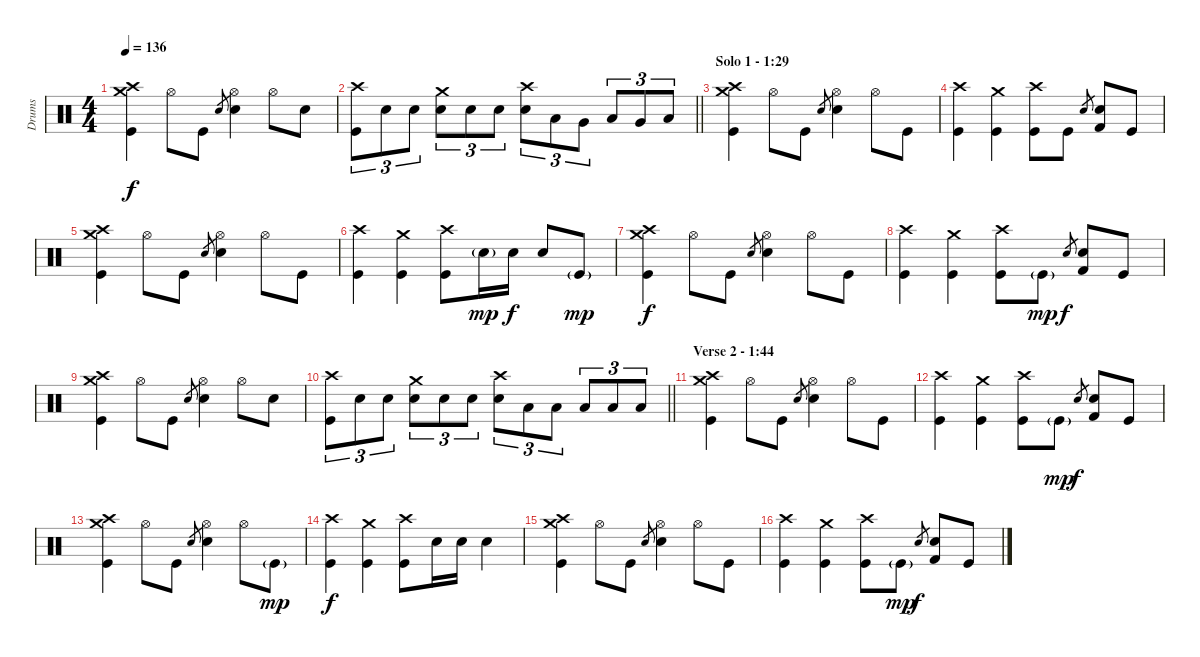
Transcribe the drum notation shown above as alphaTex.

\track ("Drums" "Drums") {instrument percussion}
\staff {score}
\articulation defaults
\ts (4 4)
\tempo 136
\clef neutral
\ks c
("Crash medium (hit)" "Crash high (hit)" "Kick (hit)").4{dy f} "Hi-Hat (open)".8 "Kick (hit)".8 "Snare (hit) 2".8{gr} ("Hi-Hat (open)" "Snare (hit) 2").4 "Hi-Hat (open)".8 "Snare (hit) 2".8 |
\barLineRight lightlight
("Crash high (hit)" "Kick (hit)").8{tu (3 2)} "Snare (hit) 2".8{tu (3 2)} "Snare (hit) 2".8{tu (3 2)} ("Crash medium (hit)" "Snare (hit) 2").8{tu (3 2)} "Snare (hit) 2".8{tu (3 2)} "Snare (hit) 2".8{tu (3 2)} ("Crash high (hit)" "Snare (hit) 2").8{tu (3 2)} "Low Floor Tom (hit)".8{tu (3 2)} "Very Low Tom (hit)".8{tu (3 2)} "Low Floor Tom (hit)".8{tu (3 2)} "Very Low Tom (hit)".8{tu (3 2)} "Low Floor Tom (hit)".8{tu (3 2)} |
\section ("" "Solo 1 - 1:29")
("Crash medium (hit)" "Crash high (hit)" "Kick (hit)").4 "Hi-Hat (open)".8 "Kick (hit)".8 "Snare (hit) 2".8{gr} ("Hi-Hat (open)" "Snare (hit) 2").4 "Hi-Hat (open)".8 "Kick (hit)".8 |
("Crash high (hit)" "Kick (hit)").4 ("Crash medium (hit)" "Kick (hit)").4 ("Crash high (hit)" "Kick (hit)").8 "Kick (hit)".8 "Snare (hit) 2".8{gr} ("Snare (hit) 2" "Kick (hit) 2").8 "Kick (hit)".8 |
("Crash medium (hit)" "Crash high (hit)" "Kick (hit)").4 "Hi-Hat (open)".8 "Kick (hit)".8 "Snare (hit) 2".8{gr} ("Hi-Hat (open)" "Snare (hit) 2").4 "Hi-Hat (open)".8 "Kick (hit)".8 |
("Crash high (hit)" "Kick (hit)").4 ("Crash medium (hit)" "Kick (hit)").4 ("Crash high (hit)" "Kick (hit)").8 "Snare (hit) 2"{g}.16{dy mp} "Snare (hit) 2".16{dy f} "Snare (hit) 2".8 "Kick (hit)"{g}.8{dy mp} |
("Crash medium (hit)" "Crash high (hit)" "Kick (hit)").4{dy f} "Hi-Hat (open)".8 "Kick (hit)".8 "Snare (hit) 2".8{gr} ("Hi-Hat (open)" "Snare (hit) 2").4 "Hi-Hat (open)".8 "Kick (hit)".8 |
("Crash high (hit)" "Kick (hit)").4 ("Crash medium (hit)" "Kick (hit)").4 ("Crash high (hit)" "Kick (hit)").8 "Kick (hit)"{g}.8{dy mp} "Snare (hit) 2".8{gr dy f} ("Snare (hit) 2" "Kick (hit) 2").8 "Kick (hit)".8 |
("Crash medium (hit)" "Crash high (hit)" "Kick (hit)").4 "Hi-Hat (open)".8 "Kick (hit)".8 "Snare (hit) 2".8{gr} ("Hi-Hat (open)" "Snare (hit) 2").4 "Hi-Hat (open)".8 "Snare (hit) 2".8 |
\barLineRight lightlight
("Crash high (hit)" "Kick (hit)").8{tu (3 2)} "Snare (hit) 2".8{tu (3 2)} "Snare (hit) 2".8{tu (3 2)} ("Crash medium (hit)" "Snare (hit) 2").8{tu (3 2)} "Snare (hit) 2".8{tu (3 2)} "Snare (hit) 2".8{tu (3 2)} ("Crash high (hit)" "Snare (hit) 2").8{tu (3 2)} "Low Floor Tom (hit)".8{tu (3 2)} "Low Floor Tom (hit)".8{tu (3 2)} "Low Floor Tom (hit)".8{tu (3 2)} "Low Floor Tom (hit)".8{tu (3 2)} "Low Floor Tom (hit)".8{tu (3 2)} |
\section ("" "Verse 2 - 1:44")
("Crash medium (hit)" "Crash high (hit)" "Kick (hit)").4 "Hi-Hat (open)".8 "Kick (hit)".8 "Snare (hit) 2".8{gr} ("Hi-Hat (open)" "Snare (hit) 2").4 "Hi-Hat (open)".8 "Kick (hit)".8 |
("Crash high (hit)" "Kick (hit)").4 ("Crash medium (hit)" "Kick (hit)").4 ("Crash high (hit)" "Kick (hit)").8 "Kick (hit)"{g}.8{dy mp} "Snare (hit) 2".8{gr dy f} ("Snare (hit) 2" "Kick (hit) 2").8 "Kick (hit)".8 |
("Crash medium (hit)" "Crash high (hit)" "Kick (hit)").4 "Hi-Hat (open)".8 "Kick (hit)".8 "Snare (hit) 2".8{gr} ("Hi-Hat (open)" "Snare (hit) 2").4 "Hi-Hat (open)".8 "Kick (hit)"{g}.8{dy mp} |
("Crash high (hit)" "Kick (hit)").4{dy f} ("Crash medium (hit)" "Kick (hit)").4 ("Crash high (hit)" "Kick (hit)").8 "Snare (hit) 2".16 "Snare (hit) 2".16 "Snare (hit) 2".4 |
("Crash medium (hit)" "Crash high (hit)" "Kick (hit)").4 "Hi-Hat (open)".8 "Kick (hit)".8 "Snare (hit) 2".8{gr} ("Hi-Hat (open)" "Snare (hit) 2").4 "Hi-Hat (open)".8 "Kick (hit)".8 |
("Crash high (hit)" "Kick (hit)").4 ("Crash medium (hit)" "Kick (hit)").4 ("Crash high (hit)" "Kick (hit)").8 "Kick (hit)"{g}.8{dy mp} "Snare (hit) 2".8{gr dy f} ("Snare (hit) 2" "Kick (hit) 2").8 "Kick (hit)".8
